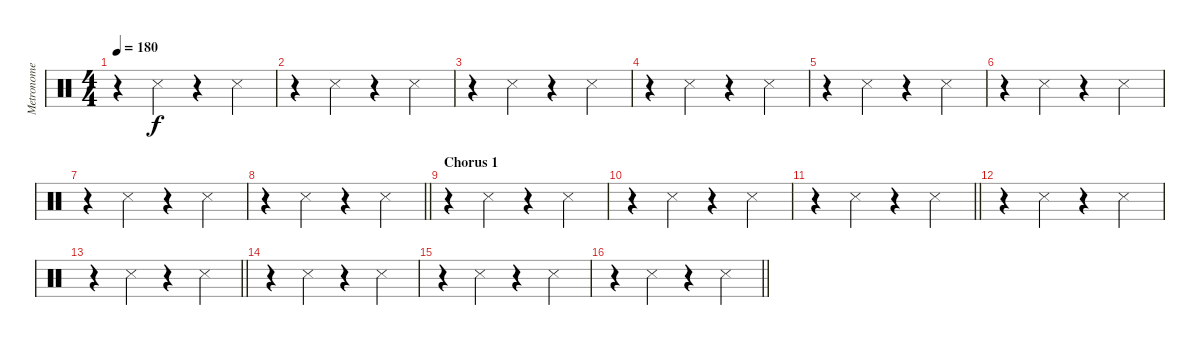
\track ("Metronome" "Metronome") {instrument percussion}
\staff {score}
\articulation defaults
\ts (4 4)
\tempo 180
\clef neutral
\ks c
r.4{dy f} "Metronome (hit)".4 r.4 "Metronome (hit)".4 |
r.4 "Metronome (hit)".4 r.4 "Metronome (hit)".4 |
r.4 "Metronome (hit)".4 r.4 "Metronome (hit)".4 |
r.4 "Metronome (hit)".4 r.4 "Metronome (hit)".4 |
r.4 "Metronome (hit)".4 r.4 "Metronome (hit)".4 |
r.4 "Metronome (hit)".4 r.4 "Metronome (hit)".4 |
r.4 "Metronome (hit)".4 r.4 "Metronome (hit)".4 |
\barLineRight lightlight
r.4 "Metronome (hit)".4 r.4 "Metronome (hit)".4 |
\section ("" "Chorus 1")
r.4 "Metronome (hit)".4 r.4 "Metronome (hit)".4 |
r.4 "Metronome (hit)".4 r.4 "Metronome (hit)".4 |
\barLineRight lightlight
r.4 "Metronome (hit)".4 r.4 "Metronome (hit)".4 |
r.4 "Metronome (hit)".4 r.4 "Metronome (hit)".4 |
\barLineRight lightlight
r.4 "Metronome (hit)".4 r.4 "Metronome (hit)".4 |
r.4 "Metronome (hit)".4 r.4 "Metronome (hit)".4 |
r.4 "Metronome (hit)".4 r.4 "Metronome (hit)".4 |
\barLineRight lightlight
r.4 "Metronome (hit)".4 r.4 "Metronome (hit)".4
